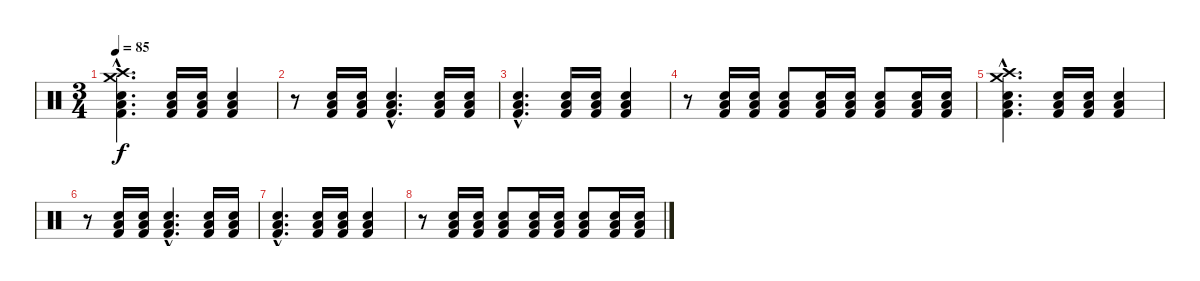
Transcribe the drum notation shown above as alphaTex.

\track "" {instrument percussion}
\staff {score}
\articulation defaults
\ts (3 4)
\tempo 85
\clef neutral
\ks c
("Crash high (hit)"{hac} "Crash medium (hit)"{hac} "Low Floor Tom (hit)"{hac} "Snare (hit) 2"{hac} "Kick (hit) 2"{hac}).4{d dy f} ("Low Floor Tom (hit)" "Snare (hit) 2" "Kick (hit) 2").16 ("Low Floor Tom (hit)" "Snare (hit) 2" "Kick (hit) 2").16 ("Low Floor Tom (hit)" "Snare (hit) 2" "Kick (hit) 2").4 |
r.8 ("Low Floor Tom (hit)" "Snare (hit) 2" "Kick (hit) 2").16 ("Low Floor Tom (hit)" "Snare (hit) 2" "Kick (hit) 2").16 ("Low Floor Tom (hit)"{hac} "Snare (hit) 2"{hac} "Kick (hit) 2"{hac}).4{d} ("Low Floor Tom (hit)" "Snare (hit) 2" "Kick (hit) 2").16 ("Low Floor Tom (hit)" "Snare (hit) 2" "Kick (hit) 2").16 |
("Low Floor Tom (hit)"{hac} "Snare (hit) 2"{hac} "Kick (hit) 2"{hac}).4{d} ("Low Floor Tom (hit)" "Snare (hit) 2" "Kick (hit) 2").16 ("Low Floor Tom (hit)" "Snare (hit) 2" "Kick (hit) 2").16 ("Low Floor Tom (hit)" "Snare (hit) 2" "Kick (hit) 2").4 |
r.8 ("Low Floor Tom (hit)" "Snare (hit) 2" "Kick (hit) 2").16 ("Low Floor Tom (hit)" "Snare (hit) 2" "Kick (hit) 2").16 ("Low Floor Tom (hit)" "Snare (hit) 2" "Kick (hit) 2").8 ("Low Floor Tom (hit)" "Snare (hit) 2" "Kick (hit) 2").16 ("Low Floor Tom (hit)" "Snare (hit) 2" "Kick (hit) 2").16 ("Low Floor Tom (hit)" "Snare (hit) 2" "Kick (hit) 2").8 ("Low Floor Tom (hit)" "Snare (hit) 2" "Kick (hit) 2").16 ("Low Floor Tom (hit)" "Snare (hit) 2" "Kick (hit) 2").16 |
("Crash high (hit)"{hac} "Crash medium (hit)"{hac} "Low Floor Tom (hit)"{hac} "Snare (hit) 2"{hac} "Kick (hit) 2"{hac}).4{d} ("Low Floor Tom (hit)" "Snare (hit) 2" "Kick (hit) 2").16 ("Low Floor Tom (hit)" "Snare (hit) 2" "Kick (hit) 2").16 ("Low Floor Tom (hit)" "Snare (hit) 2" "Kick (hit) 2").4 |
r.8 ("Low Floor Tom (hit)" "Snare (hit) 2" "Kick (hit) 2").16 ("Low Floor Tom (hit)" "Snare (hit) 2" "Kick (hit) 2").16 ("Low Floor Tom (hit)"{hac} "Snare (hit) 2"{hac} "Kick (hit) 2"{hac}).4{d} ("Low Floor Tom (hit)" "Snare (hit) 2" "Kick (hit) 2").16 ("Low Floor Tom (hit)" "Snare (hit) 2" "Kick (hit) 2").16 |
("Low Floor Tom (hit)"{hac} "Snare (hit) 2"{hac} "Kick (hit) 2"{hac}).4{d} ("Low Floor Tom (hit)" "Snare (hit) 2" "Kick (hit) 2").16 ("Low Floor Tom (hit)" "Snare (hit) 2" "Kick (hit) 2").16 ("Low Floor Tom (hit)" "Snare (hit) 2" "Kick (hit) 2").4 |
r.8 ("Low Floor Tom (hit)" "Snare (hit) 2" "Kick (hit) 2").16 ("Low Floor Tom (hit)" "Snare (hit) 2" "Kick (hit) 2").16 ("Low Floor Tom (hit)" "Snare (hit) 2" "Kick (hit) 2").8 ("Low Floor Tom (hit)" "Snare (hit) 2" "Kick (hit) 2").16 ("Low Floor Tom (hit)" "Snare (hit) 2" "Kick (hit) 2").16 ("Low Floor Tom (hit)" "Snare (hit) 2" "Kick (hit) 2").8 ("Low Floor Tom (hit)" "Snare (hit) 2" "Kick (hit) 2").16 ("Low Floor Tom (hit)" "Snare (hit) 2" "Kick (hit) 2").16
